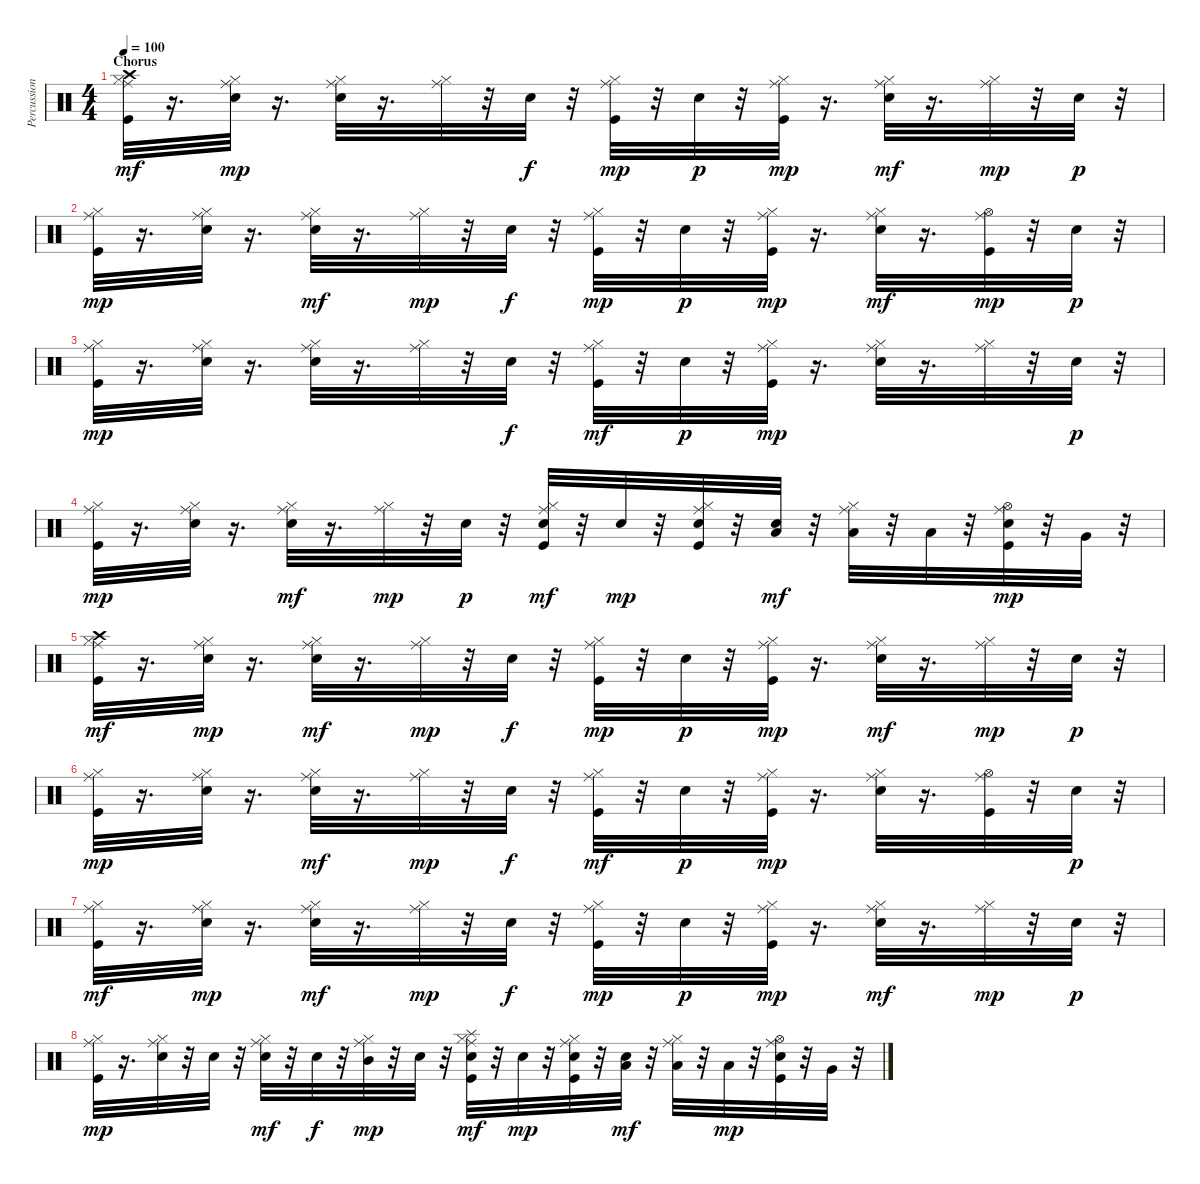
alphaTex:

\track ("Percussions" "Percussion") {instrument percussion}
\staff {score}
\articulation defaults
\ts (4 4)
\section ("" "Chorus")
\tempo 100
\clef neutral
\ks c
("Kick (hit)" "Hi-Hat (closed)" "Crash high (hit)" "Ride (middle)").32{dy mf} r.16{d} ("Electric Snare (hit)" "Hi-Hat (closed)" "Ride (middle)").32{dy mp} r.16{d} ("Electric Snare (hit)" "Hi-Hat (closed)" "Ride (middle)").32 r.16{d} ("Hi-Hat (closed)" "Ride (middle)").32 r.32 "Electric Snare (hit)".32{dy f} r.32 ("Kick (hit)" "Hi-Hat (closed)" "Ride (middle)").32{dy mp} r.32 "Electric Snare (hit)".32{dy p} r.32 ("Kick (hit)" "Hi-Hat (closed)" "Ride (middle)").32{dy mp} r.16{d} ("Electric Snare (hit)" "Hi-Hat (closed)" "Ride (middle)").32{dy mf} r.16{d} ("Hi-Hat (closed)" "Ride (middle)").32{dy mp} r.32 "Electric Snare (hit)".32{dy p} r.32 |
("Kick (hit)" "Hi-Hat (closed)" "Ride (middle)").32{dy mp} r.16{d} ("Electric Snare (hit)" "Hi-Hat (closed)" "Ride (middle)").32 r.16{d} ("Electric Snare (hit)" "Hi-Hat (closed)" "Ride (middle)").32{dy mf} r.16{d} ("Hi-Hat (closed)" "Ride (middle)").32{dy mp} r.32 "Electric Snare (hit)".32{dy f} r.32 ("Kick (hit)" "Hi-Hat (closed)" "Ride (middle)").32{dy mp} r.32 "Electric Snare (hit)".32{dy p} r.32 ("Kick (hit)" "Hi-Hat (closed)" "Ride (middle)").32{dy mp} r.16{d} ("Electric Snare (hit)" "Hi-Hat (closed)" "Ride (middle)").32{dy mf} r.16{d} ("Kick (hit)" "Hi-Hat (open)" "Ride (middle)").32{dy mp} r.32 "Electric Snare (hit)".32{dy p} r.32 |
("Kick (hit)" "Hi-Hat (closed)" "Ride (middle)").32{dy mp} r.16{d} ("Electric Snare (hit)" "Hi-Hat (closed)" "Ride (middle)").32 r.16{d} ("Electric Snare (hit)" "Hi-Hat (closed)" "Ride (middle)").32 r.16{d} ("Hi-Hat (closed)" "Ride (middle)").32 r.32 "Electric Snare (hit)".32{dy f} r.32 ("Kick (hit)" "Hi-Hat (closed)" "Ride (middle)").32{dy mf} r.32 "Electric Snare (hit)".32{dy p} r.32 ("Kick (hit)" "Hi-Hat (closed)" "Ride (middle)").32{dy mp} r.16{d} ("Electric Snare (hit)" "Hi-Hat (closed)" "Ride (middle)").32 r.16{d} ("Hi-Hat (closed)" "Ride (middle)").32 r.32 "Electric Snare (hit)".32{dy p} r.32 |
("Kick (hit)" "Hi-Hat (closed)" "Ride (middle)").32{dy mp} r.16{d} ("Electric Snare (hit)" "Hi-Hat (closed)" "Ride (middle)").32 r.16{d} ("Electric Snare (hit)" "Hi-Hat (closed)" "Ride (middle)").32{dy mf} r.16{d} ("Hi-Hat (closed)" "Ride (middle)").32{dy mp} r.32 "Electric Snare (hit)".32{dy p} r.32 ("Kick (hit)" "Electric Snare (hit)" "Hi-Hat (closed)" "Ride (middle)").32{dy mf} r.32 "Electric Snare (hit)".32{dy mp} r.32 ("Kick (hit)" "Electric Snare (hit)" "Hi-Hat (closed)" "Ride (middle)").32 r.32 ("Electric Snare (hit)" "Low Tom (hit)").32{dy mf} r.32 ("Hi-Hat (closed)" "Low Tom (hit)" "Ride (middle)").32 r.32 "Low Tom (hit)".32 r.32 ("Kick (hit)" "Electric Snare (hit)" "Hi-Hat (open)" "Ride (middle)").32{dy mp} r.32 "Very Low Tom (hit)".32 r.32 |
("Kick (hit)" "Hi-Hat (closed)" "Crash high (hit)" "Ride (middle)").32{dy mf} r.16{d} ("Electric Snare (hit)" "Hi-Hat (closed)" "Ride (middle)").32{dy mp} r.16{d} ("Electric Snare (hit)" "Hi-Hat (closed)" "Ride (middle)").32{dy mf} r.16{d} ("Hi-Hat (closed)" "Ride (middle)").32{dy mp} r.32 "Electric Snare (hit)".32{dy f} r.32 ("Kick (hit)" "Hi-Hat (closed)" "Ride (middle)").32{dy mp} r.32 "Electric Snare (hit)".32{dy p} r.32 ("Kick (hit)" "Hi-Hat (closed)" "Ride (middle)").32{dy mp} r.16{d} ("Electric Snare (hit)" "Hi-Hat (closed)" "Ride (middle)").32{dy mf} r.16{d} ("Hi-Hat (closed)" "Ride (middle)").32{dy mp} r.32 "Electric Snare (hit)".32{dy p} r.32 |
("Kick (hit)" "Hi-Hat (closed)" "Ride (middle)").32{dy mp} r.16{d} ("Electric Snare (hit)" "Hi-Hat (closed)" "Ride (middle)").32 r.16{d} ("Electric Snare (hit)" "Hi-Hat (closed)" "Ride (middle)").32{dy mf} r.16{d} ("Hi-Hat (closed)" "Ride (middle)").32{dy mp} r.32 "Electric Snare (hit)".32{dy f} r.32 ("Kick (hit)" "Hi-Hat (closed)" "Ride (middle)").32{dy mf} r.32 "Electric Snare (hit)".32{dy p} r.32 ("Kick (hit)" "Hi-Hat (closed)" "Ride (middle)").32{dy mp} r.16{d} ("Electric Snare (hit)" "Hi-Hat (closed)" "Ride (middle)").32 r.16{d} ("Kick (hit)" "Hi-Hat (open)" "Ride (middle)").32 r.32 "Electric Snare (hit)".32{dy p} r.32 |
("Kick (hit)" "Hi-Hat (closed)" "Ride (middle)").32{dy mf} r.16{d} ("Electric Snare (hit)" "Hi-Hat (closed)" "Ride (middle)").32{dy mp} r.16{d} ("Electric Snare (hit)" "Hi-Hat (closed)" "Ride (middle)").32{dy mf} r.16{d} ("Hi-Hat (closed)" "Ride (middle)").32{dy mp} r.32 "Electric Snare (hit)".32{dy f} r.32 ("Kick (hit)" "Hi-Hat (closed)" "Ride (middle)").32{dy mp} r.32 "Electric Snare (hit)".32{dy p} r.32 ("Kick (hit)" "Hi-Hat (closed)" "Ride (middle)").32{dy mp} r.16{d} ("Electric Snare (hit)" "Hi-Hat (closed)" "Ride (middle)").32{dy mf} r.16{d} ("Hi-Hat (closed)" "Ride (middle)").32{dy mp} r.32 "Electric Snare (hit)".32{dy p} r.32 |
("Kick (hit)" "Hi-Hat (closed)" "Ride (middle)").32{dy mp} r.16{d} ("Electric Snare (hit)" "Hi-Hat (closed)" "Ride (middle)").32 r.32 "Electric Snare (hit)".32 r.32 ("Electric Snare (hit)" "Hi-Hat (closed)" "Ride (middle)").32{dy mf} r.32 "Electric Snare (hit)".32{dy f} r.32 ("Hi-Hat (closed)" "Mid Tom (hit)" "Ride (middle)").32{dy mp} r.32 "Electric Snare (hit)".32 r.32 ("Kick (hit)" "Electric Snare (hit)" "Hi-Hat (closed)" "Ride (middle)" "Splash (hit)").32{dy mf} r.32 "Electric Snare (hit)".32{dy mp} r.32 ("Kick (hit)" "Electric Snare (hit)" "Hi-Hat (closed)" "Ride (middle)").32 r.32 ("Electric Snare (hit)" "Low Tom (hit)").32{dy mf} r.32 ("Hi-Hat (closed)" "Low Tom (hit)" "Ride (middle)").32 r.32 "Low Tom (hit)".32{dy mp} r.32 ("Kick (hit)" "Electric Snare (hit)" "Hi-Hat (open)" "Ride (middle)").32 r.32 "Very Low Tom (hit)".32 r.32
